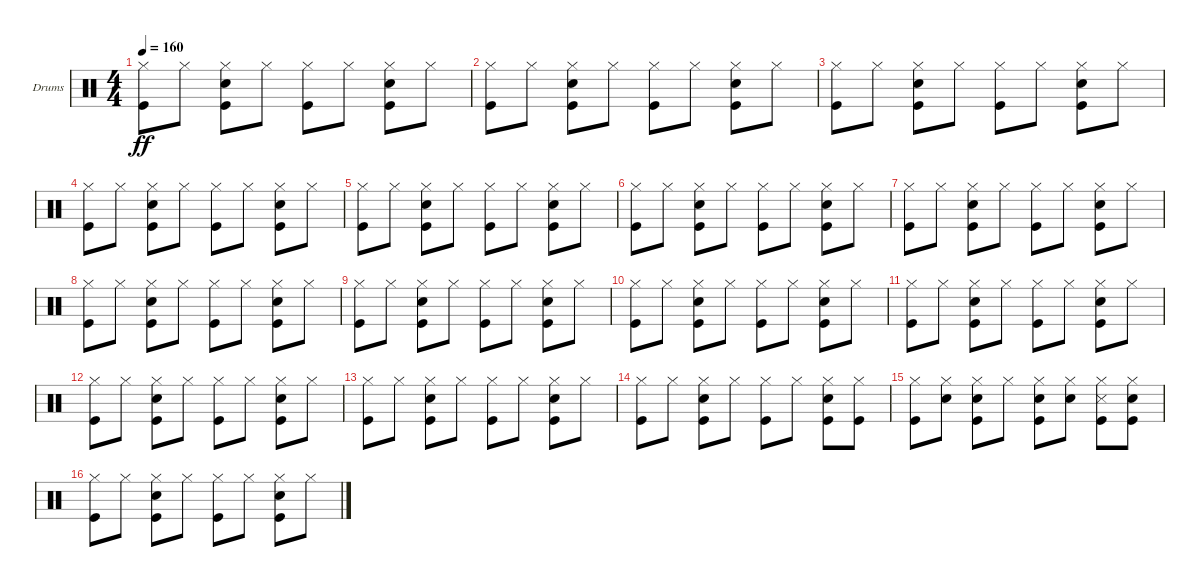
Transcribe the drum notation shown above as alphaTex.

\bracketExtendMode groupsimilarinstruments
\firstSystemTrackNameOrientation horizontal
\otherSystemsTrackNameOrientation horizontal
\track ("Ударные" "Drums") {instrument percussion}
\staff {score}
\articulation defaults
\ts (4 4)
\tempo 160
\clef neutral
\ks c
("Hi-Hat (closed)" "Kick (hit)").8{dy ff} "Hi-Hat (closed)".8 ("Hi-Hat (closed)" "Snare (hit) 2" "Kick (hit)").8 "Hi-Hat (closed)".8 ("Hi-Hat (closed)" "Kick (hit)").8 "Hi-Hat (closed)".8 ("Hi-Hat (closed)" "Snare (hit) 2" "Kick (hit)").8 "Hi-Hat (closed)".8 |
("Hi-Hat (closed)" "Kick (hit)").8 "Hi-Hat (closed)".8 ("Hi-Hat (closed)" "Snare (hit) 2" "Kick (hit)").8 "Hi-Hat (closed)".8 ("Hi-Hat (closed)" "Kick (hit)").8 "Hi-Hat (closed)".8 ("Hi-Hat (closed)" "Snare (hit) 2" "Kick (hit)").8 "Hi-Hat (closed)".8 |
("Hi-Hat (closed)" "Kick (hit)").8 "Hi-Hat (closed)".8 ("Hi-Hat (closed)" "Snare (hit) 2" "Kick (hit)").8 "Hi-Hat (closed)".8 ("Hi-Hat (closed)" "Kick (hit)").8 "Hi-Hat (closed)".8 ("Hi-Hat (closed)" "Snare (hit) 2" "Kick (hit)").8 "Hi-Hat (closed)".8 |
("Hi-Hat (closed)" "Kick (hit)").8 "Hi-Hat (closed)".8 ("Hi-Hat (closed)" "Snare (hit) 2" "Kick (hit)").8 "Hi-Hat (closed)".8 ("Hi-Hat (closed)" "Kick (hit)").8 "Hi-Hat (closed)".8 ("Hi-Hat (closed)" "Snare (hit) 2" "Kick (hit)").8 "Hi-Hat (closed)".8 |
("Hi-Hat (closed)" "Kick (hit)").8 "Hi-Hat (closed)".8 ("Hi-Hat (closed)" "Snare (hit) 2" "Kick (hit)").8 "Hi-Hat (closed)".8 ("Hi-Hat (closed)" "Kick (hit)").8 "Hi-Hat (closed)".8 ("Hi-Hat (closed)" "Snare (hit) 2" "Kick (hit)").8 "Hi-Hat (closed)".8 |
("Hi-Hat (closed)" "Kick (hit)").8 "Hi-Hat (closed)".8 ("Hi-Hat (closed)" "Snare (hit) 2" "Kick (hit)").8 "Hi-Hat (closed)".8 ("Hi-Hat (closed)" "Kick (hit)").8 "Hi-Hat (closed)".8 ("Hi-Hat (closed)" "Snare (hit) 2" "Kick (hit)").8 "Hi-Hat (closed)".8 |
("Hi-Hat (closed)" "Kick (hit)").8 "Hi-Hat (closed)".8 ("Hi-Hat (closed)" "Snare (hit) 2" "Kick (hit)").8 "Hi-Hat (closed)".8 ("Hi-Hat (closed)" "Kick (hit)").8 "Hi-Hat (closed)".8 ("Hi-Hat (closed)" "Snare (hit) 2" "Kick (hit)").8 "Hi-Hat (closed)".8 |
("Hi-Hat (closed)" "Kick (hit)").8 "Hi-Hat (closed)".8 ("Hi-Hat (closed)" "Snare (hit) 2" "Kick (hit)").8 "Hi-Hat (closed)".8 ("Hi-Hat (closed)" "Kick (hit)").8 "Hi-Hat (closed)".8 ("Hi-Hat (closed)" "Snare (hit) 2" "Kick (hit)").8 "Hi-Hat (closed)".8 |
("Hi-Hat (closed)" "Kick (hit)").8 "Hi-Hat (closed)".8 ("Hi-Hat (closed)" "Snare (hit) 2" "Kick (hit)").8 "Hi-Hat (closed)".8 ("Hi-Hat (closed)" "Kick (hit)").8 "Hi-Hat (closed)".8 ("Hi-Hat (closed)" "Snare (hit) 2" "Kick (hit)").8 "Hi-Hat (closed)".8 |
("Hi-Hat (closed)" "Kick (hit)").8 "Hi-Hat (closed)".8 ("Hi-Hat (closed)" "Snare (hit) 2" "Kick (hit)").8 "Hi-Hat (closed)".8 ("Hi-Hat (closed)" "Kick (hit)").8 "Hi-Hat (closed)".8 ("Hi-Hat (closed)" "Snare (hit) 2" "Kick (hit)").8 "Hi-Hat (closed)".8 |
("Hi-Hat (closed)" "Kick (hit)").8 "Hi-Hat (closed)".8 ("Hi-Hat (closed)" "Snare (hit) 2" "Kick (hit)").8 "Hi-Hat (closed)".8 ("Hi-Hat (closed)" "Kick (hit)").8 "Hi-Hat (closed)".8 ("Hi-Hat (closed)" "Snare (hit) 2" "Kick (hit)").8 "Hi-Hat (closed)".8 |
("Hi-Hat (closed)" "Kick (hit)").8 "Hi-Hat (closed)".8 ("Hi-Hat (closed)" "Snare (hit) 2" "Kick (hit)").8 "Hi-Hat (closed)".8 ("Hi-Hat (closed)" "Kick (hit)").8 "Hi-Hat (closed)".8 ("Hi-Hat (closed)" "Snare (hit) 2" "Kick (hit)").8 "Hi-Hat (closed)".8 |
("Hi-Hat (closed)" "Kick (hit)").8 "Hi-Hat (closed)".8 ("Hi-Hat (closed)" "Snare (hit) 2" "Kick (hit)").8 "Hi-Hat (closed)".8 ("Hi-Hat (closed)" "Kick (hit)").8 "Hi-Hat (closed)".8 ("Hi-Hat (closed)" "Snare (hit) 2" "Kick (hit)").8 "Hi-Hat (closed)".8 |
("Hi-Hat (closed)" "Kick (hit)").8 "Hi-Hat (closed)".8 ("Hi-Hat (closed)" "Snare (hit) 2" "Kick (hit)").8 "Hi-Hat (closed)".8 ("Hi-Hat (closed)" "Kick (hit)").8 "Hi-Hat (closed)".8 ("Hi-Hat (closed)" "Snare (hit) 2" "Kick (hit)").8 ("Hi-Hat (closed)" "Kick (hit)").8 |
("Hi-Hat (closed)" "Kick (hit)").8 ("Hi-Hat (closed)" "Snare (hit) 2").8 ("Hi-Hat (closed)" "Snare (hit) 2" "Kick (hit)").8 "Hi-Hat (closed)".8 ("Hi-Hat (closed)" "Snare (hit) 2" "Kick (hit)").8 ("Hi-Hat (closed)" "Snare (hit) 2").8 ("Hi-Hat (closed)" "Snare (side stick) 3" "Kick (hit)").8 ("Hi-Hat (closed)" "Snare (hit) 2" "Kick (hit)").8 |
("Hi-Hat (closed)" "Kick (hit)").8 "Hi-Hat (closed)".8 ("Hi-Hat (closed)" "Snare (hit) 2" "Kick (hit)").8 "Hi-Hat (closed)".8 ("Hi-Hat (closed)" "Kick (hit)").8 "Hi-Hat (closed)".8 ("Hi-Hat (closed)" "Snare (hit) 2" "Kick (hit)").8 "Hi-Hat (closed)".8
